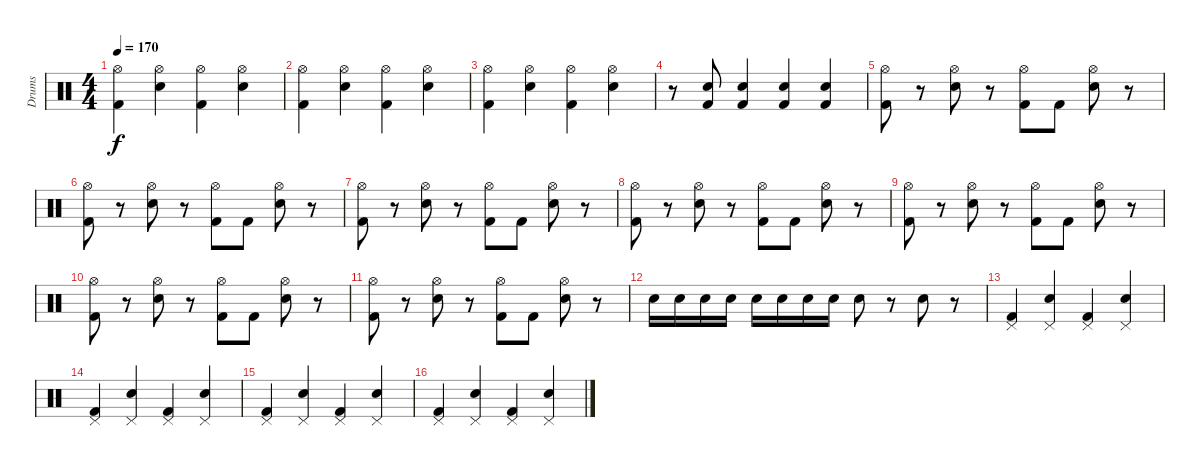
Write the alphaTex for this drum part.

\track ("Drums" "Drums") {instrument percussion}
\staff {score}
\articulation defaults
\ts (4 4)
\tempo 170
\clef neutral
\ks c
("Hi-Hat (open)" "Kick (hit) 2").4{dy f} ("Hi-Hat (open)" "Snare (hit) 2").4 ("Hi-Hat (open)" "Kick (hit) 2").4 ("Hi-Hat (open)" "Snare (hit) 2").4 |
("Hi-Hat (open)" "Kick (hit) 2").4 ("Hi-Hat (open)" "Snare (hit) 2").4 ("Hi-Hat (open)" "Kick (hit) 2").4 ("Hi-Hat (open)" "Snare (hit) 2").4 |
("Hi-Hat (open)" "Kick (hit) 2").4 ("Hi-Hat (open)" "Snare (hit) 2").4 ("Hi-Hat (open)" "Kick (hit) 2").4 ("Hi-Hat (open)" "Snare (hit) 2").4 |
r.8 ("Kick (hit) 2" "Snare (hit) 2").8 ("Kick (hit) 2" "Snare (hit) 2").4 ("Kick (hit) 2" "Snare (hit) 2").4 ("Kick (hit) 2" "Snare (hit) 2").4 |
("Hi-Hat (open)" "Kick (hit) 2").8 r.8 ("Hi-Hat (open)" "Snare (hit) 2").8 r.8 ("Hi-Hat (open)" "Kick (hit) 2").8 "Kick (hit) 2".8 ("Hi-Hat (open)" "Snare (hit) 2").8 r.8 |
("Hi-Hat (open)" "Kick (hit) 2").8 r.8 ("Hi-Hat (open)" "Snare (hit) 2").8 r.8 ("Hi-Hat (open)" "Kick (hit) 2").8 "Kick (hit) 2".8 ("Hi-Hat (open)" "Snare (hit) 2").8 r.8 |
("Hi-Hat (open)" "Kick (hit) 2").8 r.8 ("Hi-Hat (open)" "Snare (hit) 2").8 r.8 ("Hi-Hat (open)" "Kick (hit) 2").8 "Kick (hit) 2".8 ("Hi-Hat (open)" "Snare (hit) 2").8 r.8 |
("Hi-Hat (open)" "Kick (hit) 2").8 r.8 ("Hi-Hat (open)" "Snare (hit) 2").8 r.8 ("Hi-Hat (open)" "Kick (hit) 2").8 "Kick (hit) 2".8 ("Hi-Hat (open)" "Snare (hit) 2").8 r.8 |
("Hi-Hat (open)" "Kick (hit) 2").8 r.8 ("Hi-Hat (open)" "Snare (hit) 2").8 r.8 ("Hi-Hat (open)" "Kick (hit) 2").8 "Kick (hit) 2".8 ("Hi-Hat (open)" "Snare (hit) 2").8 r.8 |
("Hi-Hat (open)" "Kick (hit) 2").8 r.8 ("Hi-Hat (open)" "Snare (hit) 2").8 r.8 ("Hi-Hat (open)" "Kick (hit) 2").8 "Kick (hit) 2".8 ("Hi-Hat (open)" "Snare (hit) 2").8 r.8 |
("Hi-Hat (open)" "Kick (hit) 2").8 r.8 ("Hi-Hat (open)" "Snare (hit) 2").8 r.8 ("Hi-Hat (open)" "Kick (hit) 2").8 "Kick (hit) 2".8 ("Hi-Hat (open)" "Snare (hit) 2").8 r.8 |
"Snare (hit) 2".16 "Snare (hit) 2".16 "Snare (hit) 2".16 "Snare (hit) 2".16 "Snare (hit) 2".16 "Snare (hit) 2".16 "Snare (hit) 2".16 "Snare (hit) 2".16 "Snare (hit) 2".8 r.8 "Snare (hit) 2".8 r.8 |
("Pedal Hi-Hat (hit)" "Kick (hit) 2").4 ("Pedal Hi-Hat (hit)" "Snare (hit) 2").4 ("Pedal Hi-Hat (hit)" "Kick (hit) 2").4 ("Pedal Hi-Hat (hit)" "Snare (hit) 2").4 |
("Pedal Hi-Hat (hit)" "Kick (hit) 2").4 ("Pedal Hi-Hat (hit)" "Snare (hit) 2").4 ("Pedal Hi-Hat (hit)" "Kick (hit) 2").4 ("Pedal Hi-Hat (hit)" "Snare (hit) 2").4 |
("Pedal Hi-Hat (hit)" "Kick (hit) 2").4 ("Pedal Hi-Hat (hit)" "Snare (hit) 2").4 ("Pedal Hi-Hat (hit)" "Kick (hit) 2").4 ("Pedal Hi-Hat (hit)" "Snare (hit) 2").4 |
("Pedal Hi-Hat (hit)" "Kick (hit) 2").4 ("Pedal Hi-Hat (hit)" "Snare (hit) 2").4 ("Pedal Hi-Hat (hit)" "Kick (hit) 2").4 ("Pedal Hi-Hat (hit)" "Snare (hit) 2").4
